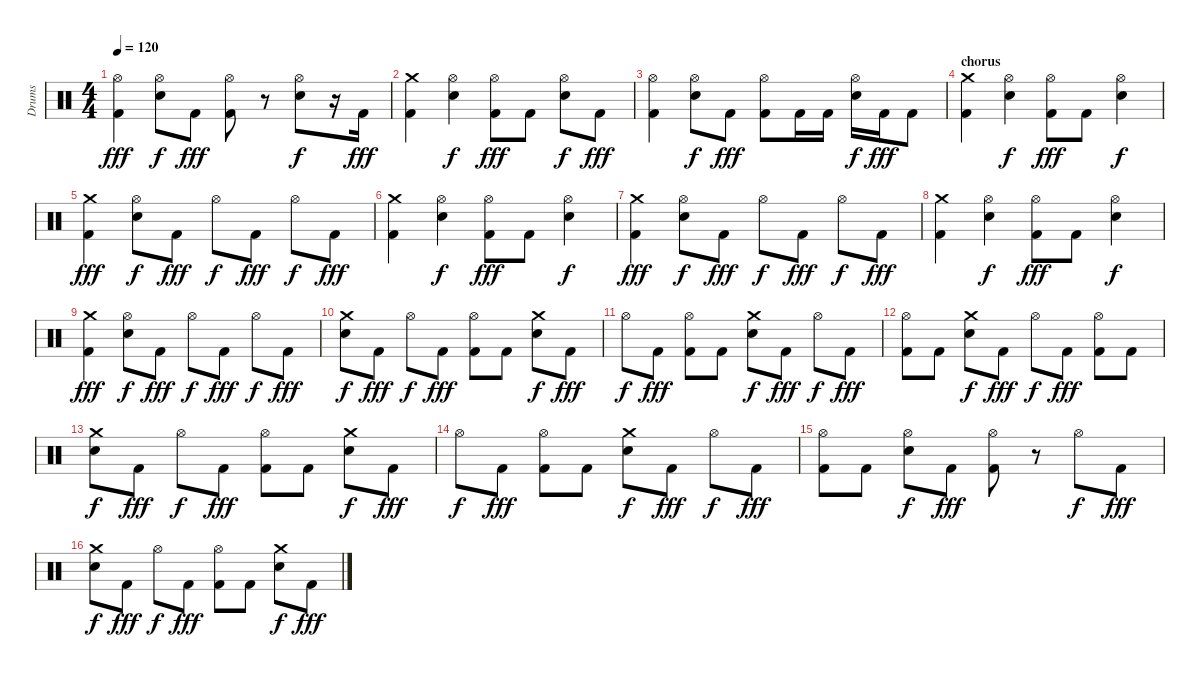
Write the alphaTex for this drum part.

\track ("Drums" "Drums") {instrument percussion}
\staff {score}
\articulation defaults
\ts (4 4)
\tempo 120
\clef neutral
\ks c
("Kick (hit) 2" "Hi-Hat (open)").4{dy fff} ("Electric Snare (hit)" "Hi-Hat (open)").8{dy f} "Kick (hit) 2".8{dy fff} ("Kick (hit) 2" "Hi-Hat (open)").8 r.8 ("Electric Snare (hit)" "Hi-Hat (open)").8{dy f} r.16 "Kick (hit) 2".16{dy fff} |
("Kick (hit) 2" "Crash medium (hit)").4 ("Electric Snare (hit)" "Hi-Hat (open)").4{dy f} ("Kick (hit) 2" "Hi-Hat (open)").8{dy fff} "Kick (hit) 2".8 ("Electric Snare (hit)" "Hi-Hat (open)").8{dy f} "Kick (hit) 2".8{dy fff} |
("Kick (hit) 2" "Hi-Hat (open)").4 ("Electric Snare (hit)" "Hi-Hat (open)").8{dy f} "Kick (hit) 2".8{dy fff} ("Kick (hit) 2" "Hi-Hat (open)").8 "Kick (hit) 2".16 "Kick (hit) 2".16 ("Electric Snare (hit)" "Hi-Hat (open)").16{dy f} "Kick (hit) 2".16{dy fff} "Kick (hit) 2".8 |
\section ("" "chorus")
("Kick (hit) 2" "Crash medium (hit)").4 ("Electric Snare (hit)" "Hi-Hat (open)").4{dy f} ("Kick (hit) 2" "Hi-Hat (open)").8{dy fff} "Kick (hit) 2".8 ("Electric Snare (hit)" "Hi-Hat (open)").4{dy f} |
("Kick (hit) 2" "Crash medium (hit)").4{dy fff} ("Electric Snare (hit)" "Hi-Hat (open)").8{dy f} "Kick (hit) 2".8{dy fff} "Hi-Hat (open)".8{dy f} "Kick (hit) 2".8{dy fff} "Hi-Hat (open)".8{dy f} "Kick (hit) 2".8{dy fff} |
("Kick (hit) 2" "Crash medium (hit)").4 ("Electric Snare (hit)" "Hi-Hat (open)").4{dy f} ("Kick (hit) 2" "Hi-Hat (open)").8{dy fff} "Kick (hit) 2".8 ("Electric Snare (hit)" "Hi-Hat (open)").4{dy f} |
("Kick (hit) 2" "Crash medium (hit)").4{dy fff} ("Electric Snare (hit)" "Hi-Hat (open)").8{dy f} "Kick (hit) 2".8{dy fff} "Hi-Hat (open)".8{dy f} "Kick (hit) 2".8{dy fff} "Hi-Hat (open)".8{dy f} "Kick (hit) 2".8{dy fff} |
("Kick (hit) 2" "Crash medium (hit)").4 ("Electric Snare (hit)" "Hi-Hat (open)").4{dy f} ("Kick (hit) 2" "Hi-Hat (open)").8{dy fff} "Kick (hit) 2".8 ("Electric Snare (hit)" "Hi-Hat (open)").4{dy f} |
("Kick (hit) 2" "Crash medium (hit)").4{dy fff} ("Electric Snare (hit)" "Hi-Hat (open)").8{dy f} "Kick (hit) 2".8{dy fff} "Hi-Hat (open)".8{dy f} "Kick (hit) 2".8{dy fff} "Hi-Hat (open)".8{dy f} "Kick (hit) 2".8{dy fff} |
("Crash medium (hit)" "Electric Snare (hit)").8{dy f} "Kick (hit) 2".8{dy fff} "Hi-Hat (open)".8{dy f} "Kick (hit) 2".8{dy fff} ("Kick (hit) 2" "Hi-Hat (open)").8 "Kick (hit) 2".8 ("Crash medium (hit)" "Electric Snare (hit)").8{dy f} "Kick (hit) 2".8{dy fff} |
"Hi-Hat (open)".8{dy f} "Kick (hit) 2".8{dy fff} ("Kick (hit) 2" "Hi-Hat (open)").8 "Kick (hit) 2".8 ("Crash medium (hit)" "Electric Snare (hit)").8{dy f} "Kick (hit) 2".8{dy fff} "Hi-Hat (open)".8{dy f} "Kick (hit) 2".8{dy fff} |
("Kick (hit) 2" "Hi-Hat (open)").8 "Kick (hit) 2".8 ("Crash medium (hit)" "Electric Snare (hit)").8{dy f} "Kick (hit) 2".8{dy fff} "Hi-Hat (open)".8{dy f} "Kick (hit) 2".8{dy fff} ("Kick (hit) 2" "Hi-Hat (open)").8 "Kick (hit) 2".8 |
("Crash medium (hit)" "Electric Snare (hit)").8{dy f} "Kick (hit) 2".8{dy fff} "Hi-Hat (open)".8{dy f} "Kick (hit) 2".8{dy fff} ("Kick (hit) 2" "Hi-Hat (open)").8 "Kick (hit) 2".8 ("Crash medium (hit)" "Electric Snare (hit)").8{dy f} "Kick (hit) 2".8{dy fff} |
"Hi-Hat (open)".8{dy f} "Kick (hit) 2".8{dy fff} ("Kick (hit) 2" "Hi-Hat (open)").8 "Kick (hit) 2".8 ("Crash medium (hit)" "Electric Snare (hit)").8{dy f} "Kick (hit) 2".8{dy fff} "Hi-Hat (open)".8{dy f} "Kick (hit) 2".8{dy fff} |
("Kick (hit) 2" "Hi-Hat (open)").8 "Kick (hit) 2".8 ("Hi-Hat (open)" "Electric Snare (hit)").8{dy f} "Kick (hit) 2".8{dy fff} ("Kick (hit) 2" "Hi-Hat (open)").8 r.8 "Hi-Hat (open)".8{dy f} "Kick (hit) 2".8{dy fff} |
("Crash medium (hit)" "Electric Snare (hit)").8{dy f} "Kick (hit) 2".8{dy fff} "Hi-Hat (open)".8{dy f} "Kick (hit) 2".8{dy fff} ("Kick (hit) 2" "Hi-Hat (open)").8 "Kick (hit) 2".8 ("Crash medium (hit)" "Electric Snare (hit)").8{dy f} "Kick (hit) 2".8{dy fff}
